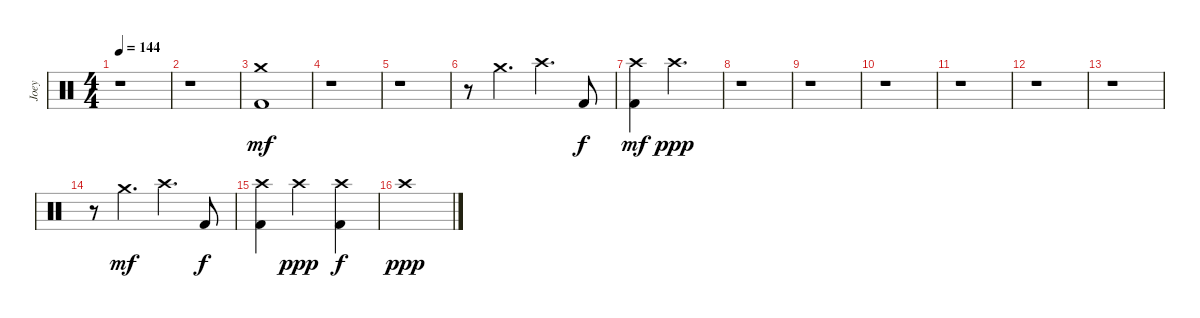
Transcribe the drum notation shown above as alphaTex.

\track ("Joey" "Joey") {instrument percussion}
\staff {score}
\articulation defaults
\ts (4 4)
\tempo 144
\clef neutral
\ks c
r.1{dy f} |
r.1 |
("Crash medium (hit)" "Kick (hit) 2").1{dy mf} |
r.1 |
r.1 |
r.8 "Crash medium (hit)".4{d} "Crash high (hit)".4{d} "Kick (hit) 2".8{dy f} |
("Crash high (hit)" "Kick (hit) 2").4{dy mf} "Crash high (hit)".2{d dy ppp} |
r.1 |
r.1 |
r.1 |
r.1 |
r.1 |
r.1 |
r.8 "Crash medium (hit)".4{d dy mf} "Crash high (hit)".4{d} "Kick (hit) 2".8{dy f} |
("Crash high (hit)" "Kick (hit) 2").4 "Crash high (hit)".2{dy ppp} ("Crash high (hit)" "Kick (hit) 2").4{dy f} |
"Crash high (hit)".1{dy ppp}
